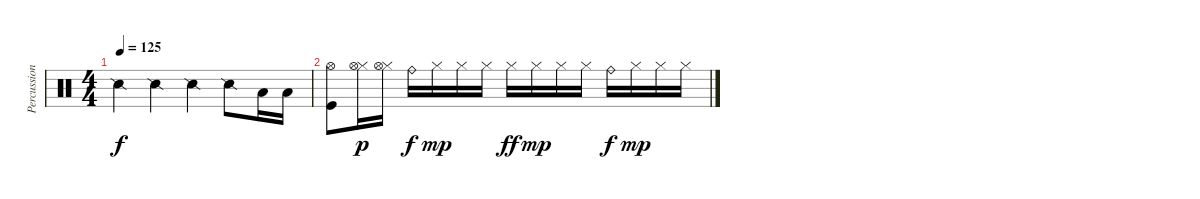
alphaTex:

\track ("Percussion" "Percussion") {instrument percussion}
\staff {score}
\articulation defaults
\ts (4 4)
\tempo 125
\clef neutral
\ks c "Snare (side stick) 2".4{dy f} "Snare (side stick) 2".4 "Snare (side stick) 2".4 "Snare (side stick) 2".8 "Low Floor Tom (hit)".16 "Low Floor Tom (hit)".16
|
("Hi-Hat (open)" "Kick (hit)").8 ("Hi-Hat (closed)" "Hi-Hat (open)").16{dy p} ("Hi-Hat (closed)" "Hi-Hat (open)").16 "Ride (bell)".16{dy f} "Hi-Hat (closed)".16{dy mp} "Hi-Hat (closed)".16 "Hi-Hat (closed)".16 "Hi-Hat (closed)".16{dy ff} "Hi-Hat (closed)".16{dy mp} "Hi-Hat (closed)".16 "Hi-Hat (closed)".16 "Ride (bell)".16{dy f} "Hi-Hat (closed)".16{dy mp} "Hi-Hat (closed)".16 "Hi-Hat (closed)".16
